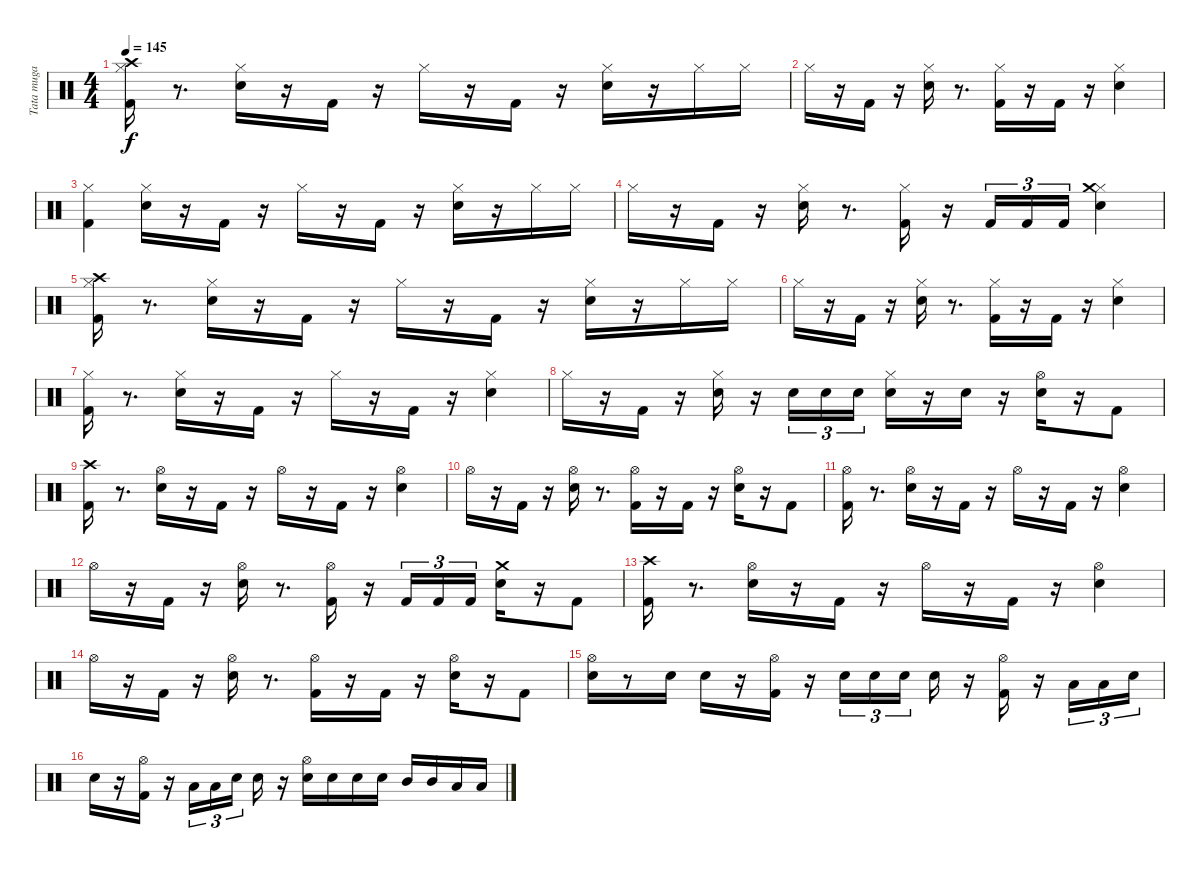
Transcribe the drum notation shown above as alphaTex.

\track ("Tata muga" "Tata muga") {instrument percussion}
\staff {score}
\articulation defaults
\ts (4 4)
\tempo 145
\clef neutral
\ks c
("Hi-Hat (closed)" "Crash high (hit)" "Kick (hit) 2").16{dy f} r.8{d} ("Hi-Hat (closed)" "Electric Snare (hit)").16 r.16 "Kick (hit) 2".16 r.16 "Hi-Hat (closed)".16 r.16 "Kick (hit) 2".16 r.16 ("Hi-Hat (closed)" "Electric Snare (hit)").16 r.16 "Hi-Hat (closed)".16 "Hi-Hat (closed)".16 |
"Hi-Hat (closed)".16 r.16 "Kick (hit) 2".16 r.16 ("Hi-Hat (closed)" "Electric Snare (hit)").16 r.8{d} ("Hi-Hat (closed)" "Kick (hit) 2").16 r.16 "Kick (hit) 2".16 r.16 ("Hi-Hat (closed)" "Electric Snare (hit)").4 |
("Hi-Hat (closed)" "Kick (hit) 2").4 ("Hi-Hat (closed)" "Electric Snare (hit)").16 r.16 "Kick (hit) 2".16 r.16 "Hi-Hat (closed)".16 r.16 "Kick (hit) 2".16 r.16 ("Hi-Hat (closed)" "Electric Snare (hit)").16 r.16 "Hi-Hat (closed)".16 "Hi-Hat (closed)".16 |
"Hi-Hat (closed)".16 r.16 "Kick (hit) 2".16 r.16 ("Hi-Hat (closed)" "Electric Snare (hit)").16 r.8{d} ("Hi-Hat (closed)" "Kick (hit) 2").16 r.16 "Kick (hit) 2".16{tu (3 2)} "Kick (hit) 2".16{tu (3 2)} "Kick (hit) 2".16{tu (3 2)} ("Hi-Hat (closed)" "Crash medium (hit)" "Electric Snare (hit)").4 |
("Hi-Hat (closed)" "Kick (hit) 2" "Crash high (hit)").16 r.8{d} ("Hi-Hat (closed)" "Electric Snare (hit)").16 r.16 "Kick (hit) 2".16 r.16 "Hi-Hat (closed)".16 r.16 "Kick (hit) 2".16 r.16 ("Hi-Hat (closed)" "Electric Snare (hit)").16 r.16 "Hi-Hat (closed)".16 "Hi-Hat (closed)".16 |
"Hi-Hat (closed)".16 r.16 "Kick (hit) 2".16 r.16 ("Electric Snare (hit)" "Hi-Hat (closed)").16 r.8{d} ("Hi-Hat (closed)" "Kick (hit) 2").16 r.16 "Kick (hit) 2".16 r.16 ("Electric Snare (hit)" "Hi-Hat (closed)").4 |
("Kick (hit) 2" "Hi-Hat (closed)").16 r.8{d} ("Electric Snare (hit)" "Hi-Hat (closed)").16 r.16 "Kick (hit) 2".16 r.16 "Hi-Hat (closed)".16 r.16 "Kick (hit) 2".16 r.16 ("Electric Snare (hit)" "Hi-Hat (closed)").4 |
"Hi-Hat (closed)".16 r.16 "Kick (hit) 2".16 r.16 ("Electric Snare (hit)" "Hi-Hat (closed)").16 r.16 "Electric Snare (hit)".16{tu (3 2)} "Electric Snare (hit)".16{tu (3 2)} "Electric Snare (hit)".16{tu (3 2)} ("Hi-Hat (closed)" "Electric Snare (hit)").16 r.16 "Electric Snare (hit)".16 r.16 ("Electric Snare (hit)" "Hi-Hat (open)").16 r.16 "Kick (hit) 2".8 |
("Crash high (hit)" "Kick (hit) 2").16 r.8{d} ("Electric Snare (hit)" "Hi-Hat (open)").16 r.16 "Kick (hit) 2".16 r.16 "Hi-Hat (open)".16 r.16 "Kick (hit) 2".16 r.16 ("Electric Snare (hit)" "Hi-Hat (open)").4 |
"Hi-Hat (open)".16 r.16 "Kick (hit) 2".16 r.16 ("Electric Snare (hit)" "Hi-Hat (open)").16 r.8{d} ("Kick (hit) 2" "Hi-Hat (open)").16 r.16 "Kick (hit) 2".16 r.16 ("Electric Snare (hit)" "Hi-Hat (open)").16 r.16 "Kick (hit) 2".8 |
("Hi-Hat (open)" "Kick (hit) 2").16 r.8{d} ("Hi-Hat (open)" "Electric Snare (hit)").16 r.16 "Kick (hit) 2".16 r.16 "Hi-Hat (open)".16 r.16 "Kick (hit) 2".16 r.16 ("Hi-Hat (open)" "Electric Snare (hit)").4 |
"Hi-Hat (open)".16 r.16 "Kick (hit) 2".16 r.16 ("Hi-Hat (open)" "Electric Snare (hit)").16 r.8{d} ("Hi-Hat (open)" "Kick (hit) 2").16 r.16 "Kick (hit) 2".16{tu (3 2)} "Kick (hit) 2".16{tu (3 2)} "Kick (hit) 2".16{tu (3 2)} ("Crash medium (hit)" "Electric Snare (hit)").16 r.16 "Kick (hit) 2".8 |
("Crash high (hit)" "Kick (hit) 2").16 r.8{d} ("Hi-Hat (open)" "Electric Snare (hit)").16 r.16 "Kick (hit) 2".16 r.16 "Hi-Hat (open)".16 r.16 "Kick (hit) 2".16 r.16 ("Hi-Hat (open)" "Electric Snare (hit)").4 |
"Hi-Hat (open)".16 r.16 "Kick (hit) 2".16 r.16 ("Hi-Hat (open)" "Electric Snare (hit)").16 r.8{d} ("Hi-Hat (open)" "Kick (hit) 2").16 r.16 "Kick (hit) 2".16 r.16 ("Hi-Hat (open)" "Electric Snare (hit)").16 r.16 "Kick (hit) 2".8 |
("Hi-Hat (open)" "Electric Snare (hit)").16 r.8 "Electric Snare (hit)".16 "Electric Snare (hit)".16 r.16 ("Kick (hit) 2" "Hi-Hat (open)").16 r.16 "Electric Snare (hit)".16{tu (3 2)} "Electric Snare (hit)".16{tu (3 2)} "Electric Snare (hit)".16{tu (3 2)} "Electric Snare (hit)".16 r.16 ("Hi-Hat (open)" "Kick (hit) 2").16 r.16 "Low Tom (hit)".16{tu (3 2)} "Low Tom (hit)".16{tu (3 2)} "Electric Snare (hit)".16{tu (3 2)} |
"Electric Snare (hit)".16 r.16 ("Hi-Hat (open)" "Kick (hit) 2").16 r.16 "Low Tom (hit)".16{tu (3 2)} "Low Tom (hit)".16{tu (3 2)} "Electric Snare (hit)".16{tu (3 2)} "Electric Snare (hit)".16 r.16 ("Hi-Hat (open)" "Electric Snare (hit)").16 "Electric Snare (hit)".16 "Electric Snare (hit)".16 "Electric Snare (hit)".16 "Mid Tom (hit)".16 "Mid Tom (hit)".16 "Low Tom (hit)".16 "Low Tom (hit)".16
